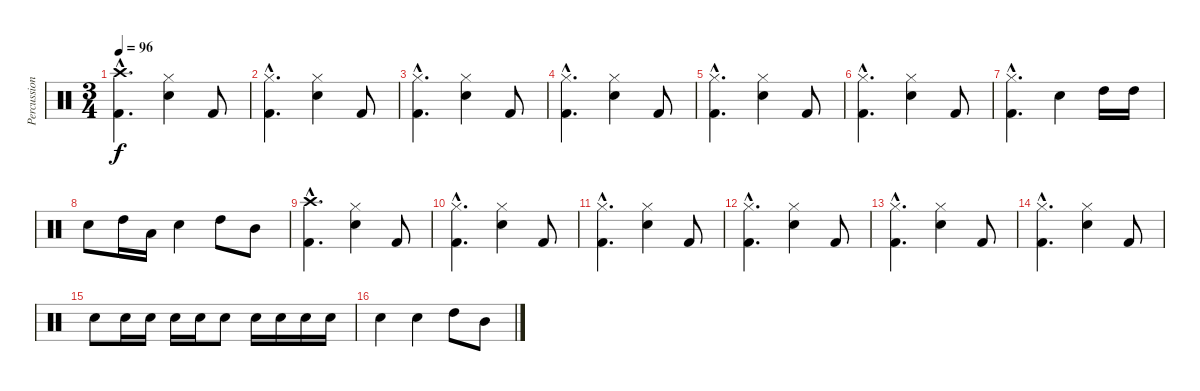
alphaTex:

\track ("Percussions" "Percussion") {instrument percussion}
\staff {score}
\articulation defaults
\ts (3 4)
\tempo 96
\clef neutral
\ks c
("Crash high (hit)"{hac} "Kick (hit) 2"{hac}).4{d dy f} ("Hi-Hat (closed)" "Snare (hit) 2").4 "Kick (hit) 2".8 |
("Hi-Hat (closed)"{hac} "Kick (hit) 2"{hac}).4{d} ("Hi-Hat (closed)" "Snare (hit) 2").4 "Kick (hit) 2".8 |
("Hi-Hat (closed)"{hac} "Kick (hit) 2"{hac}).4{d} ("Hi-Hat (closed)" "Snare (hit) 2").4 "Kick (hit) 2".8 |
("Hi-Hat (closed)"{hac} "Kick (hit) 2"{hac}).4{d} ("Hi-Hat (closed)" "Snare (hit) 2").4 "Kick (hit) 2".8 |
("Hi-Hat (closed)"{hac} "Kick (hit) 2"{hac}).4{d} ("Hi-Hat (closed)" "Snare (hit) 2").4 "Kick (hit) 2".8 |
("Hi-Hat (closed)"{hac} "Kick (hit) 2"{hac}).4{d} ("Hi-Hat (closed)" "Snare (hit) 2").4 "Kick (hit) 2".8 |
("Hi-Hat (closed)"{hac} "Kick (hit) 2"{hac}).4{d} "Snare (hit) 2".4 "High Tom (hit)".16 "High Tom (hit)".16 |
"Snare (hit) 2".8 "High Tom (hit)".16 "Low Tom (hit)".16 "Snare (hit) 2".4 "High Tom (hit)".8 "Mid Tom (hit)".8 |
("Crash high (hit)"{hac} "Kick (hit) 2"{hac}).4{d} ("Hi-Hat (closed)" "Snare (hit) 2").4 "Kick (hit) 2".8 |
("Hi-Hat (closed)"{hac} "Kick (hit) 2"{hac}).4{d} ("Hi-Hat (closed)" "Snare (hit) 2").4 "Kick (hit) 2".8 |
("Hi-Hat (closed)"{hac} "Kick (hit) 2"{hac}).4{d} ("Hi-Hat (closed)" "Snare (hit) 2").4 "Kick (hit) 2".8 |
("Hi-Hat (closed)"{hac} "Kick (hit) 2"{hac}).4{d} ("Hi-Hat (closed)" "Snare (hit) 2").4 "Kick (hit) 2".8 |
("Hi-Hat (closed)"{hac} "Kick (hit) 2"{hac}).4{d} ("Hi-Hat (closed)" "Snare (hit) 2").4 "Kick (hit) 2".8 |
("Hi-Hat (closed)"{hac} "Kick (hit) 2"{hac}).4{d} ("Hi-Hat (closed)" "Snare (hit) 2").4 "Kick (hit) 2".8 |
"Snare (hit) 2".8 "Snare (hit) 2".16 "Snare (hit) 2".16 "Snare (hit) 2".16 "Snare (hit) 2".16 "Snare (hit) 2".8 "Snare (hit) 2".16 "Snare (hit) 2".16 "Snare (hit) 2".16 "Snare (hit) 2".16 |
"Snare (hit) 2".4 "Snare (hit) 2".4 "High Tom (hit)".8 "Mid Tom (hit)".8
